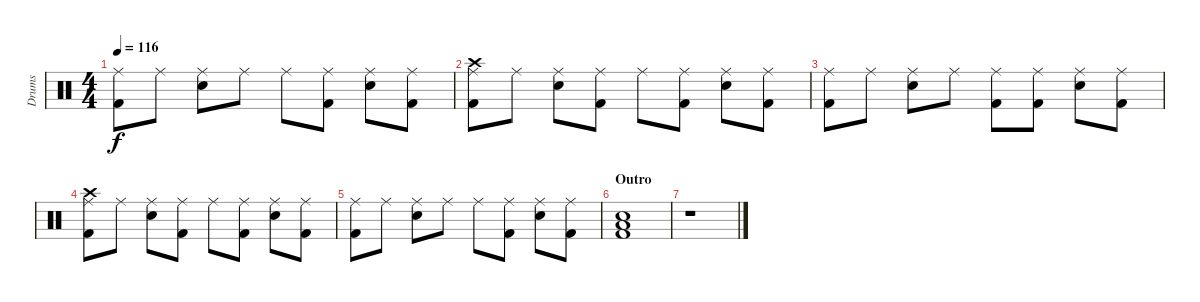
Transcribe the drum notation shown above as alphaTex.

\track ("Drums" "Drums") {instrument percussion}
\staff {score}
\articulation defaults
\ts (4 4)
\tempo 116
\clef neutral
\ks c
("Ride (middle)" "Kick (hit) 2").8{dy f} "Ride (middle)".8 ("Ride (middle)" "Snare (hit) 2").8 "Ride (middle)".8 "Ride (middle)".8 ("Ride (middle)" "Kick (hit) 2").8 ("Ride (middle)" "Snare (hit) 2").8 ("Ride (middle)" "Kick (hit) 2").8 |
("Crash high (hit)" "Ride (middle)" "Kick (hit) 2").8 "Ride (middle)".8 ("Ride (middle)" "Snare (hit) 2").8 ("Ride (middle)" "Kick (hit) 2").8 "Ride (middle)".8 ("Ride (middle)" "Kick (hit) 2").8 ("Ride (middle)" "Snare (hit) 2").8 ("Ride (middle)" "Kick (hit) 2").8 |
("Ride (middle)" "Kick (hit) 2").8 "Ride (middle)".8 ("Ride (middle)" "Snare (hit) 2").8 "Ride (middle)".8 ("Ride (middle)" "Kick (hit) 2").8 ("Ride (middle)" "Kick (hit) 2").8 ("Ride (middle)" "Snare (hit) 2").8 ("Ride (middle)" "Kick (hit) 2").8 |
("Crash high (hit)" "Ride (middle)" "Kick (hit) 2").8 "Ride (middle)".8 ("Ride (middle)" "Snare (hit) 2").8 ("Ride (middle)" "Kick (hit) 2").8 "Ride (middle)".8 ("Ride (middle)" "Kick (hit) 2").8 ("Ride (middle)" "Snare (hit) 2").8 ("Ride (middle)" "Kick (hit) 2").8 |
("Ride (middle)" "Kick (hit) 2").8 "Ride (middle)".8 ("Ride (middle)" "Snare (hit) 2").8 "Ride (middle)".8 "Ride (middle)".8 ("Ride (middle)" "Kick (hit) 2").8 ("Ride (middle)" "Snare (hit) 2").8 ("Ride (middle)" "Kick (hit) 2").8 |
\section ("" "Outro")
("Snare (hit) 2" "Low Floor Tom (hit)" "Kick (hit) 2").1 |
r.1
